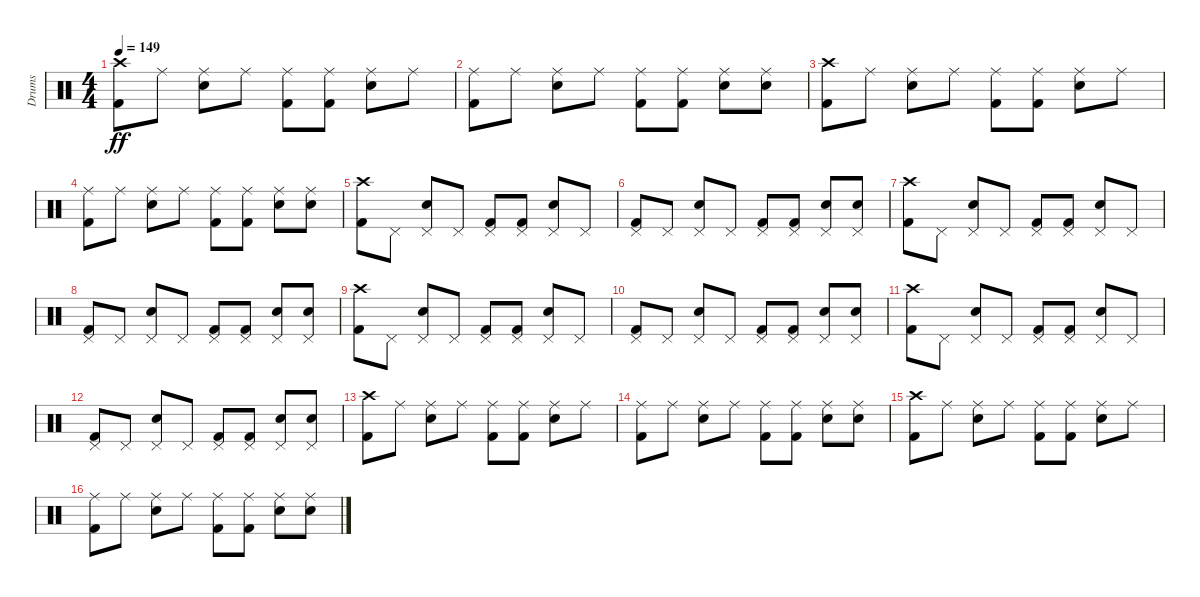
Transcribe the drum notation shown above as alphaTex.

\track ("Drums" "Drums") {instrument percussion}
\staff {score}
\articulation defaults
\ts (4 4)
\tempo 149
\clef neutral
\ks c
("Kick (hit) 2" "Crash high (hit)").8{dy ff} "Ride (middle)".8 ("Snare (hit) 2" "Ride (middle)").8 "Ride (middle)".8 ("Kick (hit) 2" "Ride (middle)").8 ("Kick (hit) 2" "Ride (middle)").8 ("Snare (hit) 2" "Ride (middle)").8 "Ride (middle)".8 |
("Kick (hit) 2" "Ride (middle)").8 "Ride (middle)".8 ("Snare (hit) 2" "Ride (middle)").8 "Ride (middle)".8 ("Kick (hit) 2" "Ride (middle)").8 ("Kick (hit) 2" "Ride (middle)").8 ("Snare (hit) 2" "Ride (middle)").8 ("Snare (hit) 2" "Ride (middle)").8 |
("Kick (hit) 2" "Crash high (hit)").8 "Ride (middle)".8 ("Snare (hit) 2" "Ride (middle)").8 "Ride (middle)".8 ("Kick (hit) 2" "Ride (middle)").8 ("Kick (hit) 2" "Ride (middle)").8 ("Snare (hit) 2" "Ride (middle)").8 "Ride (middle)".8 |
("Kick (hit) 2" "Ride (middle)").8 "Ride (middle)".8 ("Snare (hit) 2" "Ride (middle)").8 "Ride (middle)".8 ("Kick (hit) 2" "Ride (middle)").8 ("Kick (hit) 2" "Ride (middle)").8 ("Snare (hit) 2" "Ride (middle)").8 ("Snare (hit) 2" "Ride (middle)").8 |
("Kick (hit) 2" "Crash high (hit)").8 "Pedal Hi-Hat (hit)".8 ("Snare (hit) 2" "Pedal Hi-Hat (hit)").8 "Pedal Hi-Hat (hit)".8 ("Kick (hit) 2" "Pedal Hi-Hat (hit)").8 ("Kick (hit) 2" "Pedal Hi-Hat (hit)").8 ("Snare (hit) 2" "Pedal Hi-Hat (hit)").8 "Pedal Hi-Hat (hit)".8 |
("Kick (hit) 2" "Pedal Hi-Hat (hit)").8 "Pedal Hi-Hat (hit)".8 ("Snare (hit) 2" "Pedal Hi-Hat (hit)").8 "Pedal Hi-Hat (hit)".8 ("Kick (hit) 2" "Pedal Hi-Hat (hit)").8 ("Kick (hit) 2" "Pedal Hi-Hat (hit)").8 ("Snare (hit) 2" "Pedal Hi-Hat (hit)").8 ("Snare (hit) 2" "Pedal Hi-Hat (hit)").8 |
("Kick (hit) 2" "Crash high (hit)").8 "Pedal Hi-Hat (hit)".8 ("Snare (hit) 2" "Pedal Hi-Hat (hit)").8 "Pedal Hi-Hat (hit)".8 ("Kick (hit) 2" "Pedal Hi-Hat (hit)").8 ("Kick (hit) 2" "Pedal Hi-Hat (hit)").8 ("Snare (hit) 2" "Pedal Hi-Hat (hit)").8 "Pedal Hi-Hat (hit)".8 |
("Kick (hit) 2" "Pedal Hi-Hat (hit)").8 "Pedal Hi-Hat (hit)".8 ("Snare (hit) 2" "Pedal Hi-Hat (hit)").8 "Pedal Hi-Hat (hit)".8 ("Kick (hit) 2" "Pedal Hi-Hat (hit)").8 ("Kick (hit) 2" "Pedal Hi-Hat (hit)").8 ("Snare (hit) 2" "Pedal Hi-Hat (hit)").8 ("Snare (hit) 2" "Pedal Hi-Hat (hit)").8 |
("Kick (hit) 2" "Crash high (hit)").8 "Pedal Hi-Hat (hit)".8 ("Snare (hit) 2" "Pedal Hi-Hat (hit)").8 "Pedal Hi-Hat (hit)".8 ("Kick (hit) 2" "Pedal Hi-Hat (hit)").8 ("Kick (hit) 2" "Pedal Hi-Hat (hit)").8 ("Snare (hit) 2" "Pedal Hi-Hat (hit)").8 "Pedal Hi-Hat (hit)".8 |
("Kick (hit) 2" "Pedal Hi-Hat (hit)").8 "Pedal Hi-Hat (hit)".8 ("Snare (hit) 2" "Pedal Hi-Hat (hit)").8 "Pedal Hi-Hat (hit)".8 ("Kick (hit) 2" "Pedal Hi-Hat (hit)").8 ("Kick (hit) 2" "Pedal Hi-Hat (hit)").8 ("Snare (hit) 2" "Pedal Hi-Hat (hit)").8 ("Snare (hit) 2" "Pedal Hi-Hat (hit)").8 |
("Kick (hit) 2" "Crash high (hit)").8 "Pedal Hi-Hat (hit)".8 ("Snare (hit) 2" "Pedal Hi-Hat (hit)").8 "Pedal Hi-Hat (hit)".8 ("Kick (hit) 2" "Pedal Hi-Hat (hit)").8 ("Kick (hit) 2" "Pedal Hi-Hat (hit)").8 ("Snare (hit) 2" "Pedal Hi-Hat (hit)").8 "Pedal Hi-Hat (hit)".8 |
("Kick (hit) 2" "Pedal Hi-Hat (hit)").8 "Pedal Hi-Hat (hit)".8 ("Snare (hit) 2" "Pedal Hi-Hat (hit)").8 "Pedal Hi-Hat (hit)".8 ("Kick (hit) 2" "Pedal Hi-Hat (hit)").8 ("Kick (hit) 2" "Pedal Hi-Hat (hit)").8 ("Snare (hit) 2" "Pedal Hi-Hat (hit)").8 ("Snare (hit) 2" "Pedal Hi-Hat (hit)").8 |
("Kick (hit) 2" "Crash high (hit)").8 "Ride (middle)".8 ("Snare (hit) 2" "Ride (middle)").8 "Ride (middle)".8 ("Kick (hit) 2" "Ride (middle)").8 ("Kick (hit) 2" "Ride (middle)").8 ("Snare (hit) 2" "Ride (middle)").8 "Ride (middle)".8 |
("Kick (hit) 2" "Ride (middle)").8 "Ride (middle)".8 ("Snare (hit) 2" "Ride (middle)").8 "Ride (middle)".8 ("Kick (hit) 2" "Ride (middle)").8 ("Kick (hit) 2" "Ride (middle)").8 ("Snare (hit) 2" "Ride (middle)").8 ("Snare (hit) 2" "Ride (middle)").8 |
("Kick (hit) 2" "Crash high (hit)").8 "Ride (middle)".8 ("Snare (hit) 2" "Ride (middle)").8 "Ride (middle)".8 ("Kick (hit) 2" "Ride (middle)").8 ("Kick (hit) 2" "Ride (middle)").8 ("Snare (hit) 2" "Ride (middle)").8 "Ride (middle)".8 |
("Kick (hit) 2" "Ride (middle)").8 "Ride (middle)".8 ("Snare (hit) 2" "Ride (middle)").8 "Ride (middle)".8 ("Kick (hit) 2" "Ride (middle)").8 ("Kick (hit) 2" "Ride (middle)").8 ("Snare (hit) 2" "Ride (middle)").8 ("Snare (hit) 2" "Ride (middle)").8
